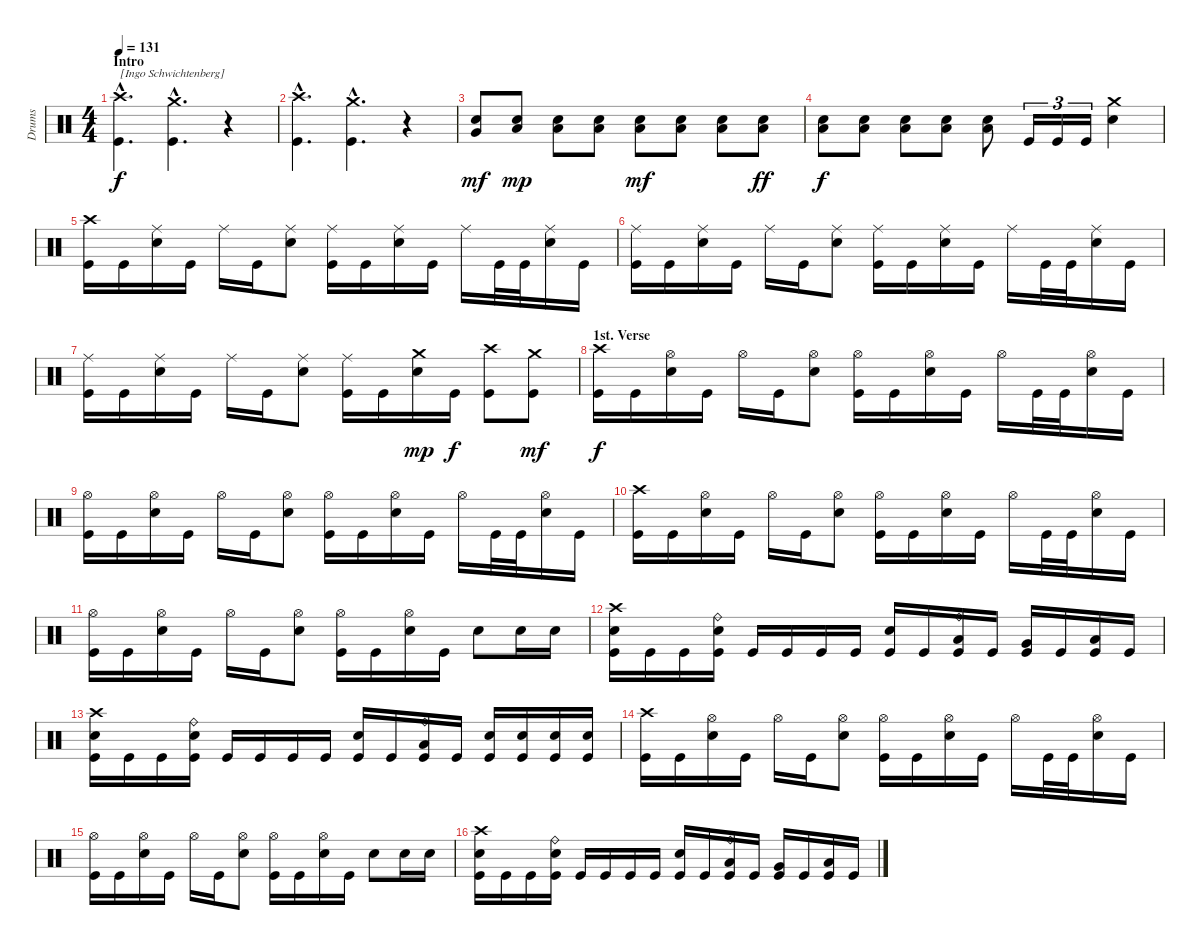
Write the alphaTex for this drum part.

\track ("Drums" "Drums") {instrument percussion}
\staff {score}
\articulation defaults
\ts (4 4)
\section ("" "Intro")
\tempo 131
\clef neutral
\ks c
("Crash high (hit)"{hac} "Kick (hit)"{hac}).4{d txt "[Ingo Schwichtenberg]" dy f} ("Crash medium (hit)"{hac} "Kick (hit)"{hac}).4{d} r.4 |
("Crash high (hit)"{hac} "Kick (hit)"{hac}).4{d} ("Crash medium (hit)"{hac} "Kick (hit)"{hac}).4{d} r.4 |
("Very Low Tom (hit)" "Snare (hit) 2").8{dy mf} ("Low Floor Tom (hit)" "Snare (hit) 2").8{dy mp} ("Low Floor Tom (hit)" "Snare (hit) 2").8 ("Low Floor Tom (hit)" "Snare (hit) 2").8 ("Low Floor Tom (hit)" "Snare (hit) 2").8{dy mf} ("Low Floor Tom (hit)" "Snare (hit) 2").8 ("Low Floor Tom (hit)" "Snare (hit) 2").8 ("Low Floor Tom (hit)" "Snare (hit) 2").8{dy ff} |
("Low Floor Tom (hit)" "Snare (hit) 2").8{dy f} ("Low Floor Tom (hit)" "Snare (hit) 2").8 ("Low Floor Tom (hit)" "Snare (hit) 2").8 ("Low Floor Tom (hit)" "Snare (hit) 2").8 ("Low Floor Tom (hit)" "Snare (hit) 2").8 "Kick (hit)".16{tu (3 2)} "Kick (hit)".16{tu (3 2)} "Kick (hit)".16{tu (3 2)} ("Crash medium (hit)" "Snare (hit) 2").4 |
("Crash high (hit)" "Kick (hit)").16 "Kick (hit)".16 ("Ride (middle)" "Snare (hit) 2").16 "Kick (hit)".16 "Ride (middle)".16 "Kick (hit)".16 ("Ride (middle)" "Snare (hit) 2").8 ("Ride (middle)" "Kick (hit)").16 "Kick (hit)".16 ("Ride (middle)" "Snare (hit) 2").16 "Kick (hit)".16 "Ride (middle)".16 "Kick (hit)".32 "Kick (hit)".32 ("Ride (middle)" "Snare (hit) 2").16 "Kick (hit)".16 |
("Ride (middle)" "Kick (hit)").16 "Kick (hit)".16 ("Ride (middle)" "Snare (hit) 2").16 "Kick (hit)".16 "Ride (middle)".16 "Kick (hit)".16 ("Ride (middle)" "Snare (hit) 2").8 ("Ride (middle)" "Kick (hit)").16 "Kick (hit)".16 ("Ride (middle)" "Snare (hit) 2").16 "Kick (hit)".16 "Ride (middle)".16 "Kick (hit)".32 "Kick (hit)".32 ("Ride (middle)" "Snare (hit) 2").16 "Kick (hit)".16 |
("Ride (middle)" "Kick (hit)").16 "Kick (hit)".16 ("Ride (middle)" "Snare (hit) 2").16 "Kick (hit)".16 "Ride (middle)".16 "Kick (hit)".16 ("Ride (middle)" "Snare (hit) 2").8 ("Ride (middle)" "Kick (hit)").16 "Kick (hit)".16 ("Crash medium (hit)" "Snare (hit) 2").16{dy mp} "Kick (hit)".16{dy f} ("Crash high (hit)" "Kick (hit)").8 ("Crash medium (hit)" "Kick (hit)").8{dy mf} |
\section ("" "1st. Verse")
("Crash high (hit)" "Kick (hit)").16{dy f} "Kick (hit)".16 ("Hi-Hat (open)" "Snare (hit) 2").16 "Kick (hit)".16 "Hi-Hat (open)".16 "Kick (hit)".16 ("Hi-Hat (open)" "Snare (hit) 2").8 ("Hi-Hat (open)" "Kick (hit)").16 "Kick (hit)".16 ("Hi-Hat (open)" "Snare (hit) 2").16 "Kick (hit)".16 "Hi-Hat (open)".16 "Kick (hit)".32 "Kick (hit)".32 ("Hi-Hat (open)" "Snare (hit) 2").16 "Kick (hit)".16 |
("Hi-Hat (open)" "Kick (hit)").16 "Kick (hit)".16 ("Hi-Hat (open)" "Snare (hit) 2").16 "Kick (hit)".16 "Hi-Hat (open)".16 "Kick (hit)".16 ("Hi-Hat (open)" "Snare (hit) 2").8 ("Hi-Hat (open)" "Kick (hit)").16 "Kick (hit)".16 ("Hi-Hat (open)" "Snare (hit) 2").16 "Kick (hit)".16 "Hi-Hat (open)".16 "Kick (hit)".32 "Kick (hit)".32 ("Hi-Hat (open)" "Snare (hit) 2").16 "Kick (hit)".16 |
("Crash high (hit)" "Kick (hit)").16 "Kick (hit)".16 ("Hi-Hat (open)" "Snare (hit) 2").16 "Kick (hit)".16 "Hi-Hat (open)".16 "Kick (hit)".16 ("Hi-Hat (open)" "Snare (hit) 2").8 ("Hi-Hat (open)" "Kick (hit)").16 "Kick (hit)".16 ("Hi-Hat (open)" "Snare (hit) 2").16 "Kick (hit)".16 "Hi-Hat (open)".16 "Kick (hit)".32 "Kick (hit)".32 ("Hi-Hat (open)" "Snare (hit) 2").16 "Kick (hit)".16 |
("Hi-Hat (open)" "Kick (hit)").16 "Kick (hit)".16 ("Hi-Hat (open)" "Snare (hit) 2").16 "Kick (hit)".16 "Hi-Hat (open)".16 "Kick (hit)".16 ("Hi-Hat (open)" "Snare (hit) 2").8 ("Hi-Hat (open)" "Kick (hit)").16 "Kick (hit)".16 ("Hi-Hat (open)" "Snare (hit) 2").16 "Kick (hit)".16 "Snare (hit) 2".8 "Snare (hit) 2".16 "Snare (hit) 2".16 |
("Crash high (hit)" "Snare (hit) 2" "Kick (hit)").16 "Kick (hit)".16 "Kick (hit)".16 ("Ride (bell)" "Snare (hit) 2" "Kick (hit)").16 "Kick (hit)".16 "Kick (hit)".16 "Kick (hit)".16 "Kick (hit)".16 ("Snare (hit) 2" "Kick (hit)").16 "Kick (hit)".16 ("Low Tom (hit)" "Ride (bell)" "Kick (hit)").16 "Kick (hit)".16 ("Very Low Tom (hit)" "Kick (hit)").16 "Kick (hit)".16 ("Low Floor Tom (hit)" "Kick (hit)").16 "Kick (hit)".16 |
("Crash high (hit)" "Snare (hit) 2" "Kick (hit)").16 "Kick (hit)".16 "Kick (hit)".16 ("Ride (bell)" "Snare (hit) 2" "Kick (hit)").16 "Kick (hit)".16 "Kick (hit)".16 "Kick (hit)".16 "Kick (hit)".16 ("Snare (hit) 2" "Kick (hit)").16 "Kick (hit)".16 ("Low Tom (hit)" "Ride (bell)" "Kick (hit)").16 "Kick (hit)".16 ("Snare (hit) 2" "Kick (hit)").16 ("Snare (hit) 2" "Kick (hit)").16 ("Snare (hit) 2" "Kick (hit)").16 ("Snare (hit) 2" "Kick (hit)").16 |
("Crash high (hit)" "Kick (hit)").16 "Kick (hit)".16 ("Hi-Hat (open)" "Snare (hit) 2").16 "Kick (hit)".16 "Hi-Hat (open)".16 "Kick (hit)".16 ("Hi-Hat (open)" "Snare (hit) 2").8 ("Hi-Hat (open)" "Kick (hit)").16 "Kick (hit)".16 ("Hi-Hat (open)" "Snare (hit) 2").16 "Kick (hit)".16 "Hi-Hat (open)".16 "Kick (hit)".32 "Kick (hit)".32 ("Hi-Hat (open)" "Snare (hit) 2").16 "Kick (hit)".16 |
("Hi-Hat (open)" "Kick (hit)").16 "Kick (hit)".16 ("Hi-Hat (open)" "Snare (hit) 2").16 "Kick (hit)".16 "Hi-Hat (open)".16 "Kick (hit)".16 ("Hi-Hat (open)" "Snare (hit) 2").8 ("Hi-Hat (open)" "Kick (hit)").16 "Kick (hit)".16 ("Hi-Hat (open)" "Snare (hit) 2").16 "Kick (hit)".16 "Snare (hit) 2".8 "Snare (hit) 2".16 "Snare (hit) 2".16 |
("Crash high (hit)" "Snare (hit) 2" "Kick (hit)").16 "Kick (hit)".16 "Kick (hit)".16 ("Ride (bell)" "Snare (hit) 2" "Kick (hit)").16 "Kick (hit)".16 "Kick (hit)".16 "Kick (hit)".16 "Kick (hit)".16 ("Snare (hit) 2" "Kick (hit)").16 "Kick (hit)".16 ("Low Tom (hit)" "Ride (bell)" "Kick (hit)").16 "Kick (hit)".16 ("Very Low Tom (hit)" "Kick (hit)").16 "Kick (hit)".16 ("Low Floor Tom (hit)" "Kick (hit)").16 "Kick (hit)".16
